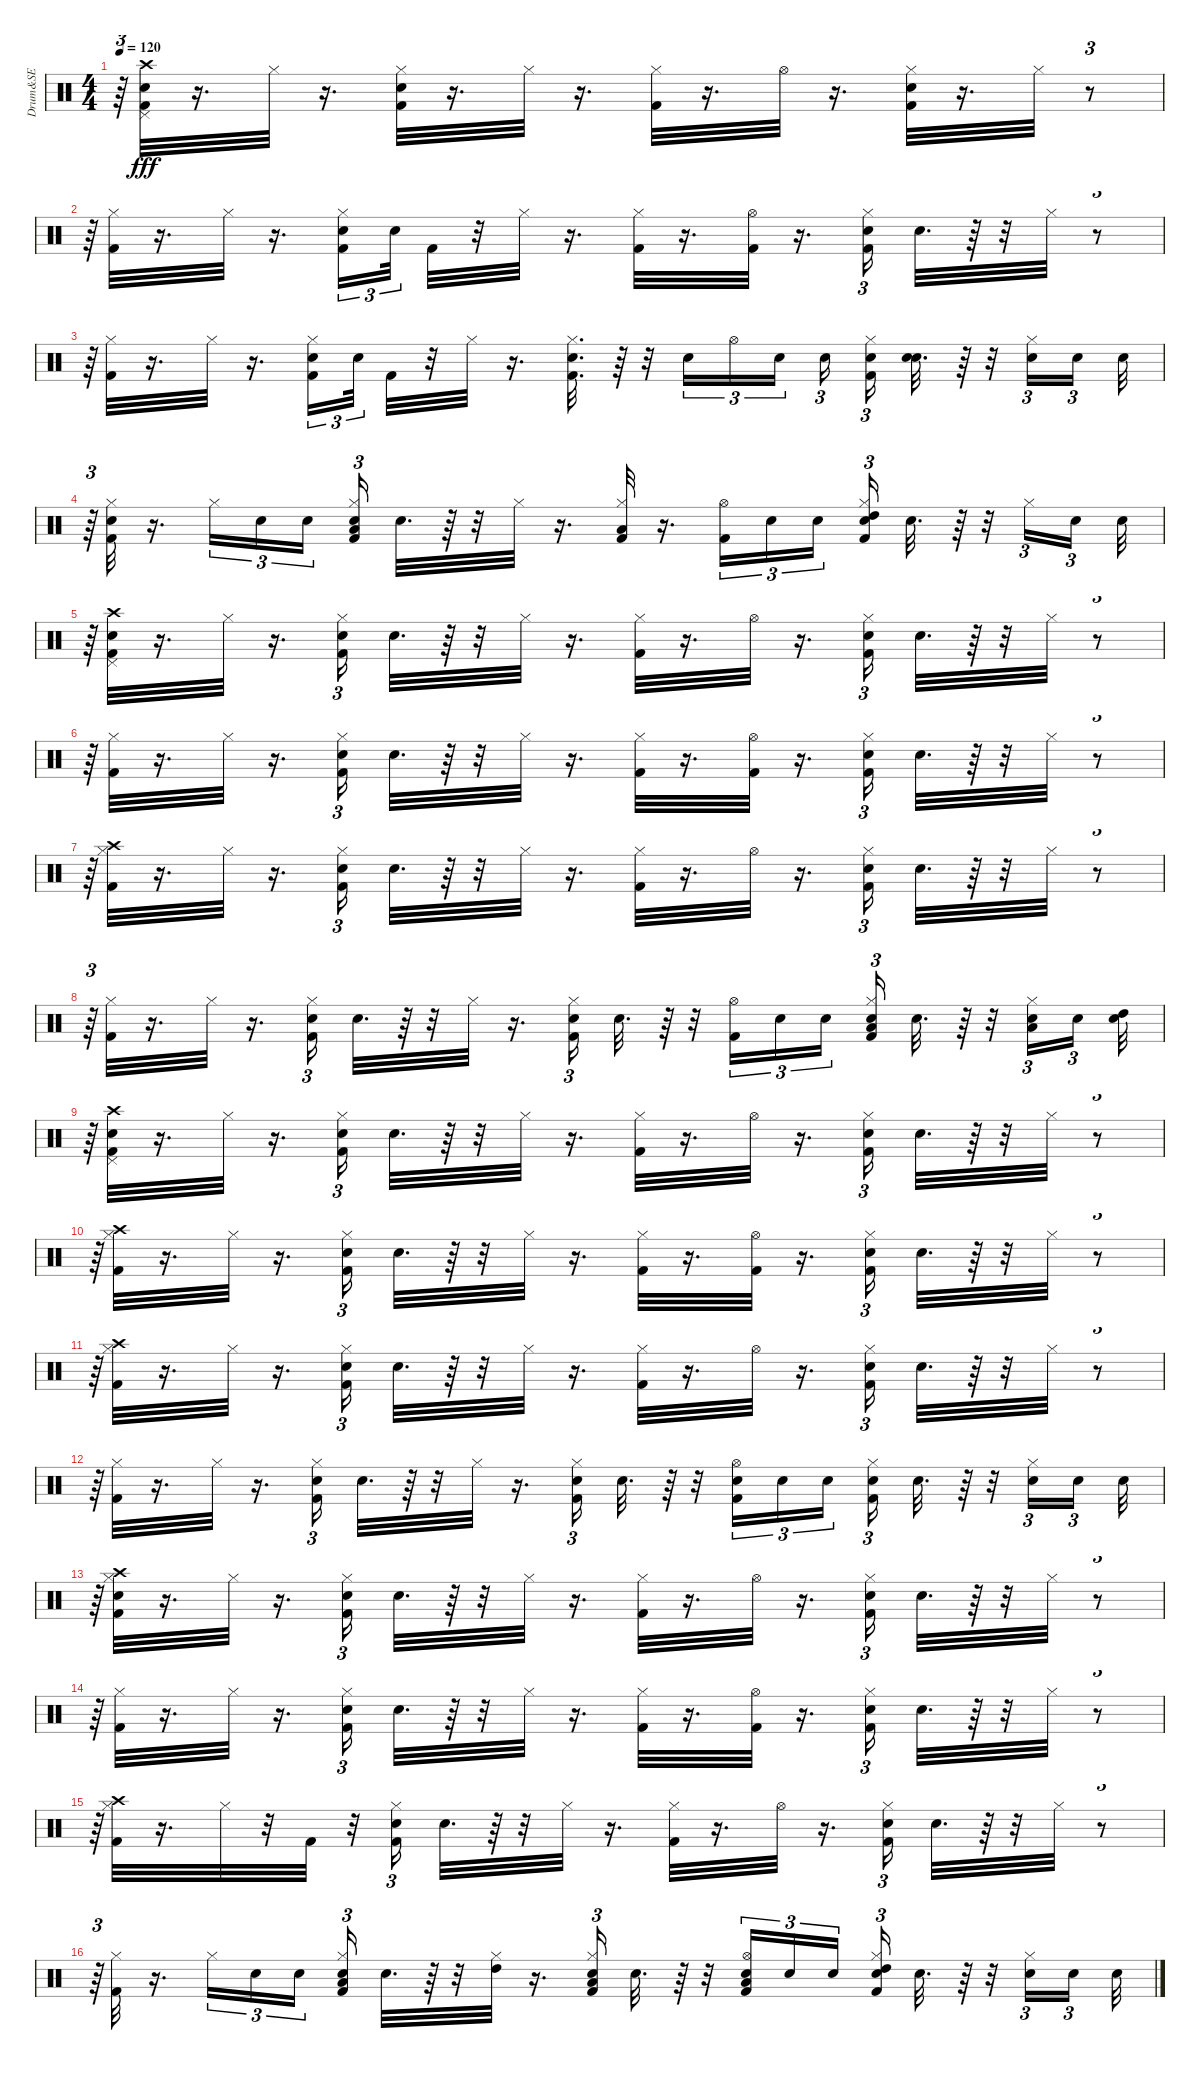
\track ("Drum&SE" "Drum&SE") {instrument percussion}
\staff {score}
\articulation defaults
\ts (4 4)
\tempo 120
\clef neutral
\ks c
r.64{tu (3 2) dy fff} ("Kick (hit) 2" "Pedal Hi-Hat (hit)" "Snare (hit) 2" "Crash high (hit)").32 r.16{d} "Hi-Hat (closed)".32 r.16{d} ("Kick (hit) 2" "Snare (hit) 2" "Hi-Hat (closed)").32 r.16{d} "Hi-Hat (closed)".32 r.16{d} ("Kick (hit) 2" "Hi-Hat (closed)").32 r.16{d} "Hi-Hat (open)".32 r.16{d} ("Kick (hit) 2" "Snare (hit) 2" "Hi-Hat (closed)").32 r.16{d} "Hi-Hat (closed)".32 r.8{tu (3 2)} |
r.64{tu (3 2)} ("Kick (hit) 2" "Hi-Hat (closed)").32 r.16{d} "Hi-Hat (closed)".32 r.16{d} ("Kick (hit) 2" "Snare (hit) 2" "Hi-Hat (closed)").16{tu (3 2)} "Snare (hit) 2".32{tu (3 2)} "Kick (hit) 2".32 r.32 "Hi-Hat (closed)".32 r.16{d} ("Kick (hit) 2" "Hi-Hat (closed)").32 r.16{d} ("Kick (hit) 2" "Hi-Hat (open)").32 r.16{d} ("Kick (hit) 2" "Snare (hit) 2" "Hi-Hat (closed)").16{tu (3 2)} "Snare (hit) 2".32{d} r.64 r.32 "Hi-Hat (closed)".32 r.8{tu (3 2)} |
r.64{tu (3 2)} ("Kick (hit) 2" "Hi-Hat (closed)").32 r.16{d} "Hi-Hat (closed)".32 r.16{d} ("Kick (hit) 2" "Snare (hit) 2" "Hi-Hat (closed)").16{tu (3 2)} "Snare (hit) 2".32{tu (3 2)} "Kick (hit) 2".32 r.32 "Hi-Hat (closed)".32 r.16{d} ("Kick (hit) 2" "Snare (hit) 2" "Hi-Hat (closed)").32{d} r.64 r.32 "Snare (hit) 2".16{tu (3 2)} "Hi-Hat (open)".16{tu (3 2)} "Snare (hit) 2".16{tu (3 2)} "Snare (hit) 2".16{tu (3 2)} ("Kick (hit) 2" "Snare (hit) 2" "Hi-Hat (closed)").16{tu (3 2)} ("Snare (hit) 2" "Snare (hit) 2").32{d} r.64 r.32 ("Snare (hit) 2" "Hi-Hat (closed)").16{tu (3 2)} "Snare (hit) 2".16{tu (3 2)} "Snare (hit) 2".32 |
r.64{tu (3 2)} ("Kick (hit) 2" "Snare (hit) 2" "Hi-Hat (closed)").32 r.16{d} "Hi-Hat (closed)".16{tu (3 2)} "Snare (hit) 2".16{tu (3 2)} "Snare (hit) 2".16{tu (3 2)} ("Kick (hit) 2" "Snare (hit) 2" "Low Floor Tom (hit)" "Hi-Hat (closed)").16{tu (3 2)} "Snare (hit) 2".32{d} r.64 r.32 "Hi-Hat (closed)".32 r.16{d} ("Kick (hit) 2" "Hi-Hat (closed)" "Low Tom (hit)").32 r.16{d} ("Kick (hit) 2" "Hi-Hat (open)").16{tu (3 2)} "Snare (hit) 2".16{tu (3 2)} "Snare (hit) 2".16{tu (3 2)} ("Kick (hit) 2" "Snare (hit) 2" "Hi-Hat (closed)" "High Tom (hit)").16{tu (3 2)} "Snare (hit) 2".32{d} r.64 r.32 "Hi-Hat (closed)".16{tu (3 2)} "Snare (hit) 2".16{tu (3 2)} "Snare (hit) 2".32 |
r.64{tu (3 2)} ("Kick (hit) 2" "Pedal Hi-Hat (hit)" "Snare (hit) 2" "Crash high (hit)").32 r.16{d} "Hi-Hat (closed)".32 r.16{d} ("Kick (hit) 2" "Snare (hit) 2" "Hi-Hat (closed)").16{tu (3 2)} "Snare (hit) 2".32{d} r.64 r.32 "Hi-Hat (closed)".32 r.16{d} ("Kick (hit) 2" "Hi-Hat (closed)").32 r.16{d} "Hi-Hat (open)".32 r.16{d} ("Kick (hit) 2" "Snare (hit) 2" "Hi-Hat (closed)").16{tu (3 2)} "Snare (hit) 2".32{d} r.64 r.32 "Hi-Hat (closed)".32 r.8{tu (3 2)} |
r.64{tu (3 2)} ("Kick (hit) 2" "Hi-Hat (closed)").32 r.16{d} "Hi-Hat (closed)".32 r.16{d} ("Kick (hit) 2" "Snare (hit) 2" "Hi-Hat (closed)").16{tu (3 2)} "Snare (hit) 2".32{d} r.64 r.32 "Hi-Hat (closed)".32 r.16{d} ("Kick (hit) 2" "Hi-Hat (closed)").32 r.16{d} ("Kick (hit) 2" "Hi-Hat (open)").32 r.16{d} ("Kick (hit) 2" "Snare (hit) 2" "Hi-Hat (closed)").16{tu (3 2)} "Snare (hit) 2".32{d} r.64 r.32 "Hi-Hat (closed)".32 r.8{tu (3 2)} |
r.64{tu (3 2)} ("Kick (hit) 2" "Hi-Hat (closed)" "Crash high (hit)").32 r.16{d} "Hi-Hat (closed)".32 r.16{d} ("Kick (hit) 2" "Snare (hit) 2" "Hi-Hat (closed)").16{tu (3 2)} "Snare (hit) 2".32{d} r.64 r.32 "Hi-Hat (closed)".32 r.16{d} ("Kick (hit) 2" "Hi-Hat (closed)").32 r.16{d} "Hi-Hat (open)".32 r.16{d} ("Kick (hit) 2" "Snare (hit) 2" "Hi-Hat (closed)").16{tu (3 2)} "Snare (hit) 2".32{d} r.64 r.32 "Hi-Hat (closed)".32 r.8{tu (3 2)} |
r.64{tu (3 2)} ("Kick (hit) 2" "Hi-Hat (closed)").32 r.16{d} "Hi-Hat (closed)".32 r.16{d} ("Kick (hit) 2" "Snare (hit) 2" "Hi-Hat (closed)").16{tu (3 2)} "Snare (hit) 2".32{d} r.64 r.32 "Hi-Hat (closed)".32 r.16{d} ("Kick (hit) 2" "Snare (hit) 2" "Hi-Hat (closed)").16{tu (3 2)} "Snare (hit) 2".32{d} r.64 r.32 ("Kick (hit) 2" "Hi-Hat (open)").16{tu (3 2)} "Snare (hit) 2".16{tu (3 2)} "Snare (hit) 2".16{tu (3 2)} ("Kick (hit) 2" "Snare (hit) 2" "Low Floor Tom (hit)" "Hi-Hat (closed)").16{tu (3 2)} "Snare (hit) 2".32{d} r.64 r.32 ("Hi-Hat (closed)" "Snare (hit) 2" "Low Tom (hit)").16{tu (3 2)} "Snare (hit) 2".16{tu (3 2)} ("Snare (hit) 2" "High Tom (hit)").32 |
r.64{tu (3 2)} ("Kick (hit) 2" "Pedal Hi-Hat (hit)" "Snare (hit) 2" "Crash high (hit)").32 r.16{d} "Hi-Hat (closed)".32 r.16{d} ("Kick (hit) 2" "Snare (hit) 2" "Hi-Hat (closed)").16{tu (3 2)} "Snare (hit) 2".32{d} r.64 r.32 "Hi-Hat (closed)".32 r.16{d} ("Kick (hit) 2" "Hi-Hat (closed)").32 r.16{d} "Hi-Hat (open)".32 r.16{d} ("Kick (hit) 2" "Snare (hit) 2" "Hi-Hat (closed)").16{tu (3 2)} "Snare (hit) 2".32{d} r.64 r.32 "Hi-Hat (closed)".32 r.8{tu (3 2)} |
r.64{tu (3 2)} ("Kick (hit) 2" "Hi-Hat (closed)" "Crash high (hit)").32 r.16{d} "Hi-Hat (closed)".32 r.16{d} ("Kick (hit) 2" "Snare (hit) 2" "Hi-Hat (closed)").16{tu (3 2)} "Snare (hit) 2".32{d} r.64 r.32 "Hi-Hat (closed)".32 r.16{d} ("Kick (hit) 2" "Hi-Hat (closed)").32 r.16{d} ("Kick (hit) 2" "Hi-Hat (open)").32 r.16{d} ("Kick (hit) 2" "Snare (hit) 2" "Hi-Hat (closed)").16{tu (3 2)} "Snare (hit) 2".32{d} r.64 r.32 "Hi-Hat (closed)".32 r.8{tu (3 2)} |
r.64{tu (3 2)} ("Kick (hit) 2" "Hi-Hat (closed)" "Crash high (hit)").32 r.16{d} "Hi-Hat (closed)".32 r.16{d} ("Kick (hit) 2" "Snare (hit) 2" "Hi-Hat (closed)").16{tu (3 2)} "Snare (hit) 2".32{d} r.64 r.32 "Hi-Hat (closed)".32 r.16{d} ("Kick (hit) 2" "Hi-Hat (closed)").32 r.16{d} "Hi-Hat (open)".32 r.16{d} ("Kick (hit) 2" "Snare (hit) 2" "Hi-Hat (closed)").16{tu (3 2)} "Snare (hit) 2".32{d} r.64 r.32 "Hi-Hat (closed)".32 r.8{tu (3 2)} |
r.64{tu (3 2)} ("Kick (hit) 2" "Hi-Hat (closed)").32 r.16{d} "Hi-Hat (closed)".32 r.16{d} ("Kick (hit) 2" "Snare (hit) 2" "Hi-Hat (closed)").16{tu (3 2)} "Snare (hit) 2".32{d} r.64 r.32 "Hi-Hat (closed)".32 r.16{d} ("Kick (hit) 2" "Snare (hit) 2" "Hi-Hat (closed)").16{tu (3 2)} "Snare (hit) 2".32{d} r.64 r.32 ("Kick (hit) 2" "Snare (hit) 2" "Hi-Hat (open)").16{tu (3 2)} "Snare (hit) 2".16{tu (3 2)} "Snare (hit) 2".16{tu (3 2)} ("Kick (hit) 2" "Snare (hit) 2" "Hi-Hat (closed)").16{tu (3 2)} "Snare (hit) 2".32{d} r.64 r.32 ("Snare (hit) 2" "Hi-Hat (closed)").16{tu (3 2)} "Snare (hit) 2".16{tu (3 2)} "Snare (hit) 2".32 |
r.64{tu (3 2)} ("Kick (hit) 2" "Hi-Hat (closed)" "Snare (hit) 2" "Crash high (hit)").32 r.16{d} "Hi-Hat (closed)".32 r.16{d} ("Kick (hit) 2" "Snare (hit) 2" "Hi-Hat (closed)").16{tu (3 2)} "Snare (hit) 2".32{d} r.64 r.32 "Hi-Hat (closed)".32 r.16{d} ("Kick (hit) 2" "Hi-Hat (closed)").32 r.16{d} "Hi-Hat (open)".32 r.16{d} ("Kick (hit) 2" "Snare (hit) 2" "Hi-Hat (closed)").16{tu (3 2)} "Snare (hit) 2".32{d} r.64 r.32 "Hi-Hat (closed)".32 r.8{tu (3 2)} |
r.64{tu (3 2)} ("Kick (hit) 2" "Hi-Hat (closed)").32 r.16{d} "Hi-Hat (closed)".32 r.16{d} ("Kick (hit) 2" "Snare (hit) 2" "Hi-Hat (closed)").16{tu (3 2)} "Snare (hit) 2".32{d} r.64 r.32 "Hi-Hat (closed)".32 r.16{d} ("Kick (hit) 2" "Hi-Hat (closed)").32 r.16{d} ("Kick (hit) 2" "Hi-Hat (open)").32 r.16{d} ("Kick (hit) 2" "Snare (hit) 2" "Hi-Hat (closed)").16{tu (3 2)} "Snare (hit) 2".32{d} r.64 r.32 "Hi-Hat (closed)".32 r.8{tu (3 2)} |
r.64{tu (3 2)} ("Kick (hit) 2" "Hi-Hat (closed)" "Crash high (hit)").32 r.16{d} "Hi-Hat (closed)".32 r.32 "Kick (hit) 2".32 r.32 ("Kick (hit) 2" "Snare (hit) 2" "Hi-Hat (closed)").16{tu (3 2)} "Snare (hit) 2".32{d} r.64 r.32 "Hi-Hat (closed)".32 r.16{d} ("Kick (hit) 2" "Hi-Hat (closed)").32 r.16{d} "Hi-Hat (open)".32 r.16{d} ("Kick (hit) 2" "Snare (hit) 2" "Hi-Hat (closed)").16{tu (3 2)} "Snare (hit) 2".32{d} r.64 r.32 "Hi-Hat (closed)".32 r.8{tu (3 2)} |
r.64{tu (3 2)} ("Kick (hit) 2" "Hi-Hat (closed)").32 r.16{d} "Hi-Hat (closed)".16{tu (3 2)} "Snare (hit) 2".16{tu (3 2)} "Snare (hit) 2".16{tu (3 2)} ("Kick (hit) 2" "Snare (hit) 2" "Low Floor Tom (hit)" "Hi-Hat (closed)").16{tu (3 2)} "Snare (hit) 2".32{d} r.64 r.32 ("Hi-Hat (closed)" "High Tom (hit)").32 r.16{d} ("Kick (hit) 2" "Snare (hit) 2" "Hi-Hat (closed)" "Low Tom (hit)").16{tu (3 2)} "Snare (hit) 2".32{d} r.64 r.32 ("Kick (hit) 2" "Snare (hit) 2" "Low Floor Tom (hit)" "Hi-Hat (open)").16{tu (3 2)} "Snare (hit) 2".16{tu (3 2)} "Snare (hit) 2".16{tu (3 2)} ("Kick (hit) 2" "Snare (hit) 2" "Hi-Hat (closed)" "High Tom (hit)").16{tu (3 2)} "Snare (hit) 2".32{d} r.64 r.32 ("Snare (hit) 2" "Hi-Hat (closed)").16{tu (3 2)} "Snare (hit) 2".16{tu (3 2)} "Snare (hit) 2".32
